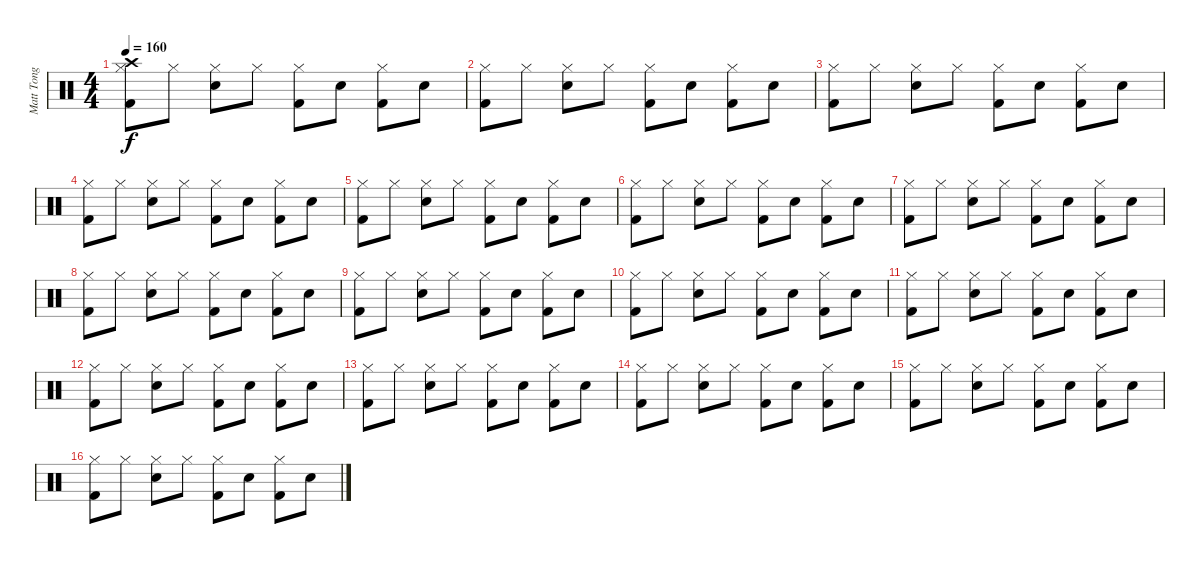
\track ("Matt Tong" "Matt Tong") {instrument percussion}
\staff {score}
\articulation defaults
\ts (4 4)
\tempo 160
\clef neutral
\ks c
("Crash high (hit)" "Hi-Hat (closed)" "Kick (hit) 2").8{dy f} "Hi-Hat (closed)".8 ("Hi-Hat (closed)" "Electric Snare (hit)").8 "Hi-Hat (closed)".8 ("Hi-Hat (closed)" "Kick (hit) 2").8 "Electric Snare (hit)".8 ("Hi-Hat (closed)" "Kick (hit) 2").8 "Electric Snare (hit)".8 |
("Hi-Hat (closed)" "Kick (hit) 2").8 "Hi-Hat (closed)".8 ("Hi-Hat (closed)" "Electric Snare (hit)").8 "Hi-Hat (closed)".8 ("Hi-Hat (closed)" "Kick (hit) 2").8 "Electric Snare (hit)".8 ("Hi-Hat (closed)" "Kick (hit) 2").8 "Electric Snare (hit)".8 |
("Hi-Hat (closed)" "Kick (hit) 2").8 "Hi-Hat (closed)".8 ("Hi-Hat (closed)" "Electric Snare (hit)").8 "Hi-Hat (closed)".8 ("Hi-Hat (closed)" "Kick (hit) 2").8 "Electric Snare (hit)".8 ("Hi-Hat (closed)" "Kick (hit) 2").8 "Electric Snare (hit)".8 |
("Hi-Hat (closed)" "Kick (hit) 2").8 "Hi-Hat (closed)".8 ("Hi-Hat (closed)" "Electric Snare (hit)").8 "Hi-Hat (closed)".8 ("Hi-Hat (closed)" "Kick (hit) 2").8 "Electric Snare (hit)".8 ("Hi-Hat (closed)" "Kick (hit) 2").8 "Electric Snare (hit)".8 |
("Hi-Hat (closed)" "Kick (hit) 2").8 "Hi-Hat (closed)".8 ("Hi-Hat (closed)" "Electric Snare (hit)").8 "Hi-Hat (closed)".8 ("Hi-Hat (closed)" "Kick (hit) 2").8 "Electric Snare (hit)".8 ("Hi-Hat (closed)" "Kick (hit) 2").8 "Electric Snare (hit)".8 |
("Hi-Hat (closed)" "Kick (hit) 2").8 "Hi-Hat (closed)".8 ("Hi-Hat (closed)" "Electric Snare (hit)").8 "Hi-Hat (closed)".8 ("Hi-Hat (closed)" "Kick (hit) 2").8 "Electric Snare (hit)".8 ("Hi-Hat (closed)" "Kick (hit) 2").8 "Electric Snare (hit)".8 |
("Hi-Hat (closed)" "Kick (hit) 2").8 "Hi-Hat (closed)".8 ("Hi-Hat (closed)" "Electric Snare (hit)").8 "Hi-Hat (closed)".8 ("Hi-Hat (closed)" "Kick (hit) 2").8 "Electric Snare (hit)".8 ("Hi-Hat (closed)" "Kick (hit) 2").8 "Electric Snare (hit)".8 |
("Hi-Hat (closed)" "Kick (hit) 2").8 "Hi-Hat (closed)".8 ("Hi-Hat (closed)" "Electric Snare (hit)").8 "Hi-Hat (closed)".8 ("Hi-Hat (closed)" "Kick (hit) 2").8 "Electric Snare (hit)".8 ("Hi-Hat (closed)" "Kick (hit) 2").8 "Electric Snare (hit)".8 |
("Hi-Hat (closed)" "Kick (hit) 2").8 "Hi-Hat (closed)".8 ("Hi-Hat (closed)" "Electric Snare (hit)").8 "Hi-Hat (closed)".8 ("Hi-Hat (closed)" "Kick (hit) 2").8 "Electric Snare (hit)".8 ("Hi-Hat (closed)" "Kick (hit) 2").8 "Electric Snare (hit)".8 |
("Hi-Hat (closed)" "Kick (hit) 2").8 "Hi-Hat (closed)".8 ("Hi-Hat (closed)" "Electric Snare (hit)").8 "Hi-Hat (closed)".8 ("Hi-Hat (closed)" "Kick (hit) 2").8 "Electric Snare (hit)".8 ("Hi-Hat (closed)" "Kick (hit) 2").8 "Electric Snare (hit)".8 |
("Hi-Hat (closed)" "Kick (hit) 2").8 "Hi-Hat (closed)".8 ("Hi-Hat (closed)" "Electric Snare (hit)").8 "Hi-Hat (closed)".8 ("Hi-Hat (closed)" "Kick (hit) 2").8 "Electric Snare (hit)".8 ("Hi-Hat (closed)" "Kick (hit) 2").8 "Electric Snare (hit)".8 |
("Hi-Hat (closed)" "Kick (hit) 2").8 "Hi-Hat (closed)".8 ("Hi-Hat (closed)" "Electric Snare (hit)").8 "Hi-Hat (closed)".8 ("Hi-Hat (closed)" "Kick (hit) 2").8 "Electric Snare (hit)".8 ("Hi-Hat (closed)" "Kick (hit) 2").8 "Electric Snare (hit)".8 |
("Hi-Hat (closed)" "Kick (hit) 2").8 "Hi-Hat (closed)".8 ("Hi-Hat (closed)" "Electric Snare (hit)").8 "Hi-Hat (closed)".8 ("Hi-Hat (closed)" "Kick (hit) 2").8 "Electric Snare (hit)".8 ("Hi-Hat (closed)" "Kick (hit) 2").8 "Electric Snare (hit)".8 |
("Hi-Hat (closed)" "Kick (hit) 2").8 "Hi-Hat (closed)".8 ("Hi-Hat (closed)" "Electric Snare (hit)").8 "Hi-Hat (closed)".8 ("Hi-Hat (closed)" "Kick (hit) 2").8 "Electric Snare (hit)".8 ("Hi-Hat (closed)" "Kick (hit) 2").8 "Electric Snare (hit)".8 |
("Hi-Hat (closed)" "Kick (hit) 2").8 "Hi-Hat (closed)".8 ("Hi-Hat (closed)" "Electric Snare (hit)").8 "Hi-Hat (closed)".8 ("Hi-Hat (closed)" "Kick (hit) 2").8 "Electric Snare (hit)".8 ("Hi-Hat (closed)" "Kick (hit) 2").8 "Electric Snare (hit)".8 |
("Hi-Hat (closed)" "Kick (hit) 2").8 "Hi-Hat (closed)".8 ("Hi-Hat (closed)" "Electric Snare (hit)").8 "Hi-Hat (closed)".8 ("Hi-Hat (closed)" "Kick (hit) 2").8 "Electric Snare (hit)".8 ("Hi-Hat (closed)" "Kick (hit) 2").8 "Electric Snare (hit)".8
